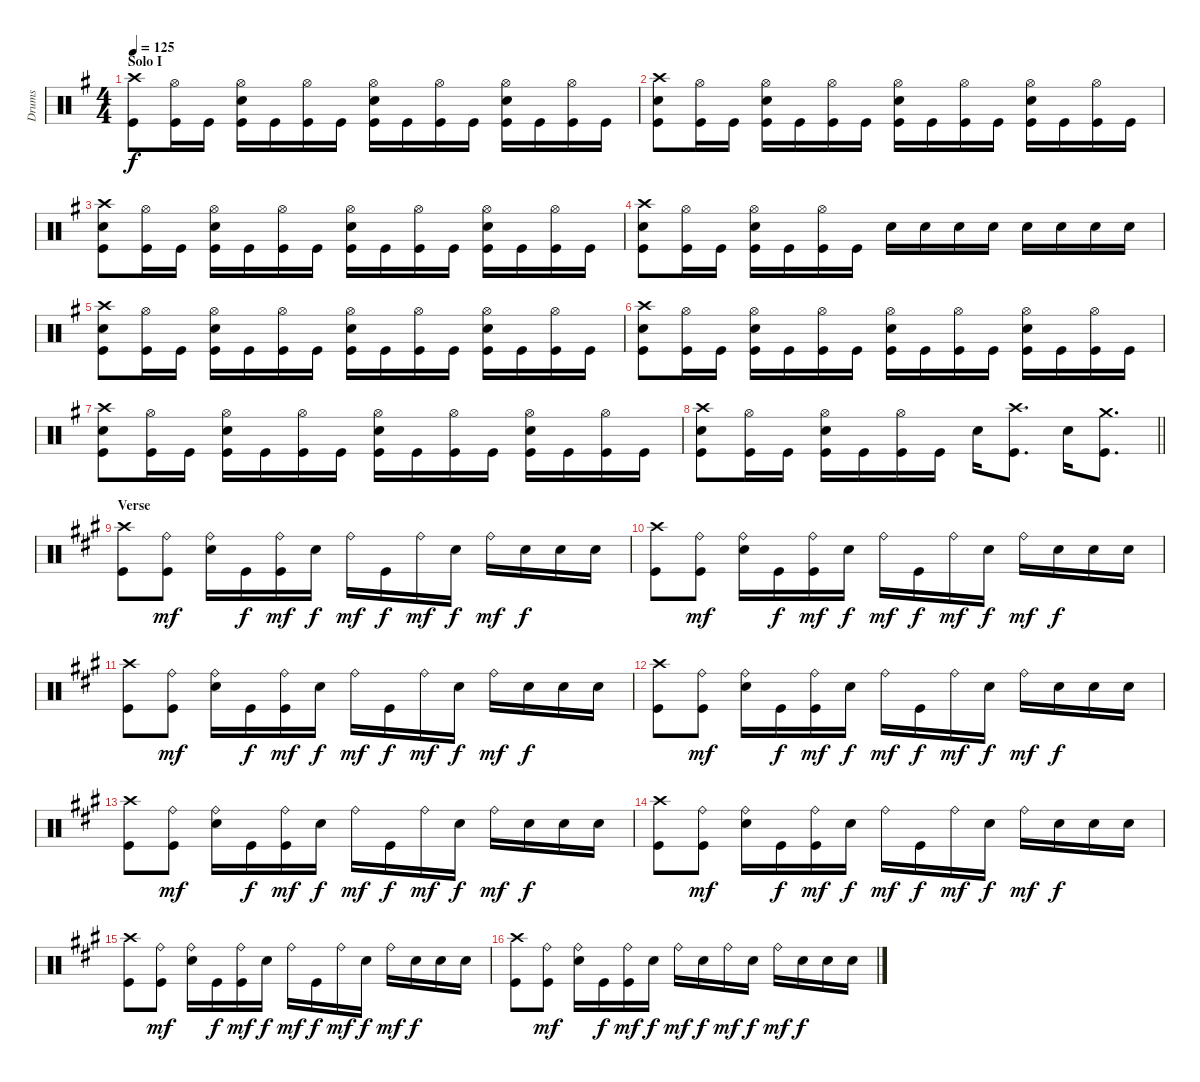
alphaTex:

\track ("Drums" "Drums") {instrument percussion}
\staff {score}
\articulation defaults
\ts (4 4)
\section ("" "Solo I")
\tempo 125
\clef neutral
\ks eminor
("Crash high (hit)" "Kick (hit)").8{dy f} ("Hi-Hat (open)" "Kick (hit)").16 "Kick (hit)".16 ("Hi-Hat (open)" "Snare (hit) 2" "Kick (hit)").16 "Kick (hit)".16 ("Hi-Hat (open)" "Kick (hit)").16 "Kick (hit)".16 ("Hi-Hat (open)" "Snare (hit) 2" "Kick (hit)").16 "Kick (hit)".16 ("Hi-Hat (open)" "Kick (hit)").16 "Kick (hit)".16 ("Hi-Hat (open)" "Snare (hit) 2" "Kick (hit)").16 "Kick (hit)".16 ("Hi-Hat (open)" "Kick (hit)").16 "Kick (hit)".16 |
("Crash high (hit)" "Snare (hit) 2" "Kick (hit)").8 ("Hi-Hat (open)" "Kick (hit)").16 "Kick (hit)".16 ("Hi-Hat (open)" "Snare (hit) 2" "Kick (hit)").16 "Kick (hit)".16 ("Hi-Hat (open)" "Kick (hit)").16 "Kick (hit)".16 ("Hi-Hat (open)" "Snare (hit) 2" "Kick (hit)").16 "Kick (hit)".16 ("Hi-Hat (open)" "Kick (hit)").16 "Kick (hit)".16 ("Hi-Hat (open)" "Snare (hit) 2" "Kick (hit)").16 "Kick (hit)".16 ("Hi-Hat (open)" "Kick (hit)").16 "Kick (hit)".16 |
("Crash high (hit)" "Snare (hit) 2" "Kick (hit)").8 ("Hi-Hat (open)" "Kick (hit)").16 "Kick (hit)".16 ("Hi-Hat (open)" "Snare (hit) 2" "Kick (hit)").16 "Kick (hit)".16 ("Hi-Hat (open)" "Kick (hit)").16 "Kick (hit)".16 ("Hi-Hat (open)" "Snare (hit) 2" "Kick (hit)").16 "Kick (hit)".16 ("Hi-Hat (open)" "Kick (hit)").16 "Kick (hit)".16 ("Hi-Hat (open)" "Snare (hit) 2" "Kick (hit)").16 "Kick (hit)".16 ("Hi-Hat (open)" "Kick (hit)").16 "Kick (hit)".16 |
("Crash high (hit)" "Snare (hit) 2" "Kick (hit)").8 ("Hi-Hat (open)" "Kick (hit)").16 "Kick (hit)".16 ("Hi-Hat (open)" "Snare (hit) 2" "Kick (hit)").16 "Kick (hit)".16 ("Hi-Hat (open)" "Kick (hit)").16 "Kick (hit)".16 "Snare (hit) 2".16 "Snare (hit) 2".16 "Snare (hit) 2".16 "Snare (hit) 2".16 "Snare (hit) 2".16 "Snare (hit) 2".16 "Snare (hit) 2".16 "Snare (hit) 2".16 |
("Crash high (hit)" "Snare (hit) 2" "Kick (hit)").8 ("Hi-Hat (open)" "Kick (hit)").16 "Kick (hit)".16 ("Hi-Hat (open)" "Snare (hit) 2" "Kick (hit)").16 "Kick (hit)".16 ("Hi-Hat (open)" "Kick (hit)").16 "Kick (hit)".16 ("Hi-Hat (open)" "Snare (hit) 2" "Kick (hit)").16 "Kick (hit)".16 ("Hi-Hat (open)" "Kick (hit)").16 "Kick (hit)".16 ("Hi-Hat (open)" "Snare (hit) 2" "Kick (hit)").16 "Kick (hit)".16 ("Hi-Hat (open)" "Kick (hit)").16 "Kick (hit)".16 |
("Crash high (hit)" "Snare (hit) 2" "Kick (hit)").8 ("Hi-Hat (open)" "Kick (hit)").16 "Kick (hit)".16 ("Hi-Hat (open)" "Snare (hit) 2" "Kick (hit)").16 "Kick (hit)".16 ("Hi-Hat (open)" "Kick (hit)").16 "Kick (hit)".16 ("Hi-Hat (open)" "Snare (hit) 2" "Kick (hit)").16 "Kick (hit)".16 ("Hi-Hat (open)" "Kick (hit)").16 "Kick (hit)".16 ("Hi-Hat (open)" "Snare (hit) 2" "Kick (hit)").16 "Kick (hit)".16 ("Hi-Hat (open)" "Kick (hit)").16 "Kick (hit)".16 |
("Crash high (hit)" "Snare (hit) 2" "Kick (hit)").8 ("Hi-Hat (open)" "Kick (hit)").16 "Kick (hit)".16 ("Hi-Hat (open)" "Snare (hit) 2" "Kick (hit)").16 "Kick (hit)".16 ("Hi-Hat (open)" "Kick (hit)").16 "Kick (hit)".16 ("Hi-Hat (open)" "Snare (hit) 2" "Kick (hit)").16 "Kick (hit)".16 ("Hi-Hat (open)" "Kick (hit)").16 "Kick (hit)".16 ("Hi-Hat (open)" "Snare (hit) 2" "Kick (hit)").16 "Kick (hit)".16 ("Hi-Hat (open)" "Kick (hit)").16 "Kick (hit)".16 |
\barLineRight lightlight
("Crash high (hit)" "Snare (hit) 2" "Kick (hit)").8 ("Hi-Hat (open)" "Kick (hit)").16 "Kick (hit)".16 ("Hi-Hat (open)" "Snare (hit) 2" "Kick (hit)").16 "Kick (hit)".16 ("Hi-Hat (open)" "Kick (hit)").16 "Kick (hit)".16 "Snare (hit) 2".16 ("Crash high (hit)" "Kick (hit)").8{d} "Snare (hit) 2".16 ("Crash medium (hit)" "Kick (hit)").8{d} |
\section ("" "Verse")
\ks f#minor
("Crash high (hit)" "Kick (hit)").8 ("Ride (bell)" "Kick (hit)").8{dy mf} ("Ride (bell)" "Snare (hit) 2").16 "Kick (hit)".16{dy f} ("Ride (bell)" "Kick (hit)").16{dy mf} "Snare (hit) 2".16{dy f} "Ride (bell)".16{dy mf} "Kick (hit)".16{dy f} "Ride (bell)".16{dy mf} "Snare (hit) 2".16{dy f} "Ride (bell)".16{dy mf} "Snare (hit) 2".16{dy f} "Snare (hit) 2".16 "Snare (hit) 2".16 |
("Crash high (hit)" "Kick (hit)").8 ("Ride (bell)" "Kick (hit)").8{dy mf} ("Ride (bell)" "Snare (hit) 2").16 "Kick (hit)".16{dy f} ("Ride (bell)" "Kick (hit)").16{dy mf} "Snare (hit) 2".16{dy f} "Ride (bell)".16{dy mf} "Kick (hit)".16{dy f} "Ride (bell)".16{dy mf} "Snare (hit) 2".16{dy f} "Ride (bell)".16{dy mf} "Snare (hit) 2".16{dy f} "Snare (hit) 2".16 "Snare (hit) 2".16 |
("Crash high (hit)" "Kick (hit)").8 ("Ride (bell)" "Kick (hit)").8{dy mf} ("Ride (bell)" "Snare (hit) 2").16 "Kick (hit)".16{dy f} ("Ride (bell)" "Kick (hit)").16{dy mf} "Snare (hit) 2".16{dy f} "Ride (bell)".16{dy mf} "Kick (hit)".16{dy f} "Ride (bell)".16{dy mf} "Snare (hit) 2".16{dy f} "Ride (bell)".16{dy mf} "Snare (hit) 2".16{dy f} "Snare (hit) 2".16 "Snare (hit) 2".16 |
("Crash high (hit)" "Kick (hit)").8 ("Ride (bell)" "Kick (hit)").8{dy mf} ("Ride (bell)" "Snare (hit) 2").16 "Kick (hit)".16{dy f} ("Ride (bell)" "Kick (hit)").16{dy mf} "Snare (hit) 2".16{dy f} "Ride (bell)".16{dy mf} "Kick (hit)".16{dy f} "Ride (bell)".16{dy mf} "Snare (hit) 2".16{dy f} "Ride (bell)".16{dy mf} "Snare (hit) 2".16{dy f} "Snare (hit) 2".16 "Snare (hit) 2".16 |
("Crash high (hit)" "Kick (hit)").8 ("Ride (bell)" "Kick (hit)").8{dy mf} ("Ride (bell)" "Snare (hit) 2").16 "Kick (hit)".16{dy f} ("Ride (bell)" "Kick (hit)").16{dy mf} "Snare (hit) 2".16{dy f} "Ride (bell)".16{dy mf} "Kick (hit)".16{dy f} "Ride (bell)".16{dy mf} "Snare (hit) 2".16{dy f} "Ride (bell)".16{dy mf} "Snare (hit) 2".16{dy f} "Snare (hit) 2".16 "Snare (hit) 2".16 |
("Crash high (hit)" "Kick (hit)").8 ("Ride (bell)" "Kick (hit)").8{dy mf} ("Ride (bell)" "Snare (hit) 2").16 "Kick (hit)".16{dy f} ("Ride (bell)" "Kick (hit)").16{dy mf} "Snare (hit) 2".16{dy f} "Ride (bell)".16{dy mf} "Kick (hit)".16{dy f} "Ride (bell)".16{dy mf} "Snare (hit) 2".16{dy f} "Ride (bell)".16{dy mf} "Snare (hit) 2".16{dy f} "Snare (hit) 2".16 "Snare (hit) 2".16 |
("Crash high (hit)" "Kick (hit)").8 ("Ride (bell)" "Kick (hit)").8{dy mf} ("Ride (bell)" "Snare (hit) 2").16 "Kick (hit)".16{dy f} ("Ride (bell)" "Kick (hit)").16{dy mf} "Snare (hit) 2".16{dy f} "Ride (bell)".16{dy mf} "Kick (hit)".16{dy f} "Ride (bell)".16{dy mf} "Snare (hit) 2".16{dy f} "Ride (bell)".16{dy mf} "Snare (hit) 2".16{dy f} "Snare (hit) 2".16 "Snare (hit) 2".16 |
("Crash high (hit)" "Kick (hit)").8 ("Ride (bell)" "Kick (hit)").8{dy mf} ("Ride (bell)" "Snare (hit) 2").16 "Kick (hit)".16{dy f} ("Ride (bell)" "Kick (hit)").16{dy mf} "Snare (hit) 2".16{dy f} "Ride (bell)".16{dy mf} "Snare (hit) 2".16{dy f} "Ride (bell)".16{dy mf} "Snare (hit) 2".16{dy f} "Ride (bell)".16{dy mf} "Snare (hit) 2".16{dy f} "Snare (hit) 2".16 "Snare (hit) 2".16
